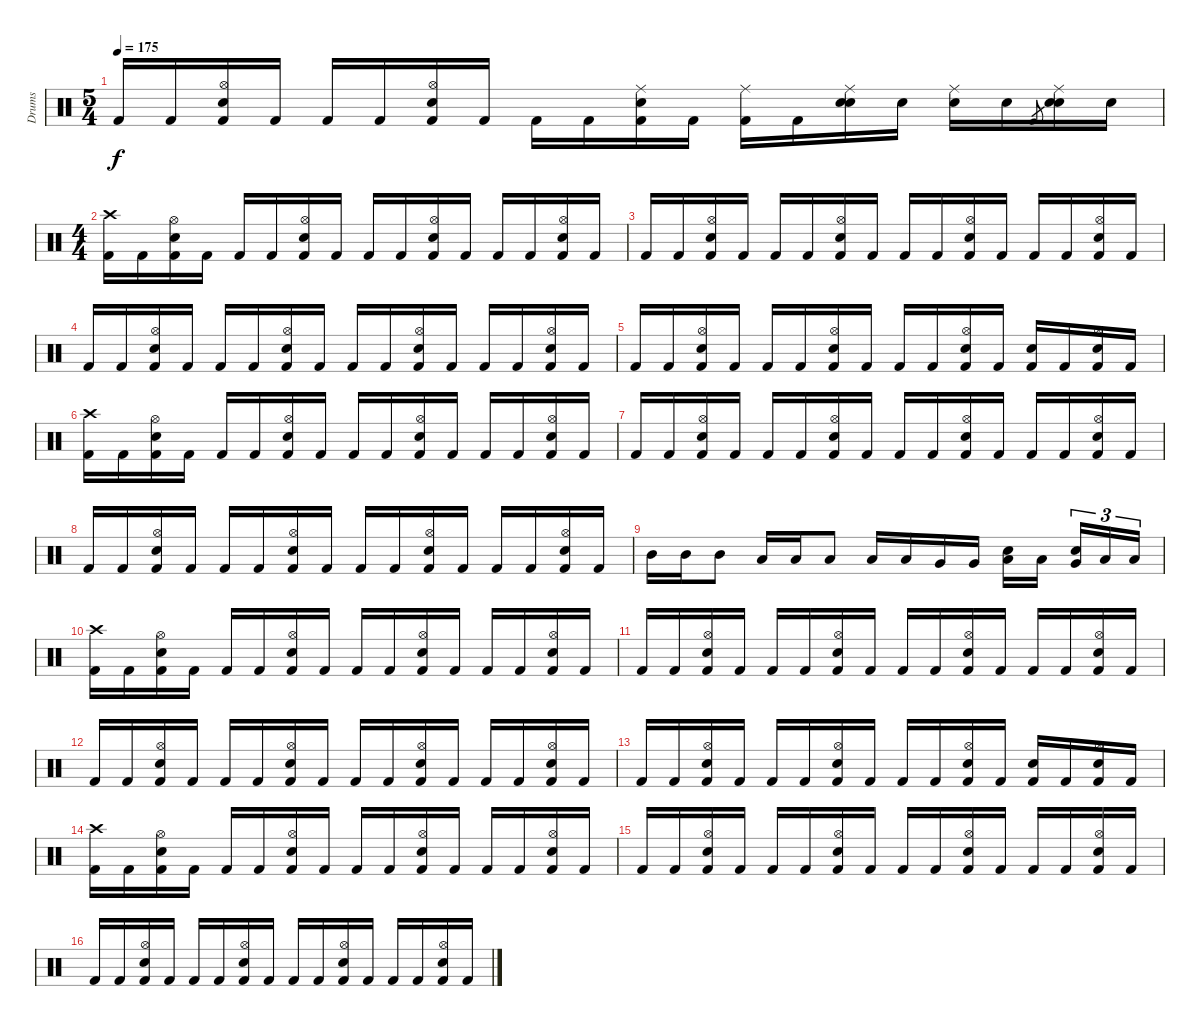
\track ("Drums" "Drums") {instrument percussion}
\staff {score}
\articulation defaults
\ts (5 4)
\tempo 175
\clef neutral
\ks c "Kick (hit) 2".16{dy f} "Kick (hit) 2".16
("Hi-Hat (open)" "Electric Snare (hit)" "Kick (hit) 2").16 "Kick (hit) 2".16 "Kick (hit) 2".16 "Kick (hit) 2".16 ("Hi-Hat (open)" "Electric Snare (hit)" "Kick (hit) 2").16 "Kick (hit) 2".16 "Kick (hit) 2".16 "Kick (hit) 2".16 ("Ride (middle)" "Electric Snare (hit)" "Kick (hit) 2").16 "Kick (hit) 2".16 ("Ride (middle)" "Kick (hit) 2").16 "Kick (hit) 2".16 ("Ride (middle)" "Electric Snare (hit)" "Snare (hit) 2").16 "Snare (hit) 2".16 ("Ride (middle)" "Snare (hit) 2").16 "Snare (hit) 2".16 "Kick (hit) 2".8{gr} ("Ride (middle)" "Electric Snare (hit)" "Snare (hit) 2").16 "Snare (hit) 2".16 |
\ts (4 4)
("Crash high (hit)" "Kick (hit) 2").16 "Kick (hit) 2".16 ("Hi-Hat (open)" "Electric Snare (hit)" "Kick (hit) 2").16 "Kick (hit) 2".16 "Kick (hit) 2".16 "Kick (hit) 2".16 ("Hi-Hat (open)" "Electric Snare (hit)" "Kick (hit) 2").16 "Kick (hit) 2".16 "Kick (hit) 2".16 "Kick (hit) 2".16 ("Hi-Hat (open)" "Electric Snare (hit)" "Kick (hit) 2").16 "Kick (hit) 2".16 "Kick (hit) 2".16 "Kick (hit) 2".16 ("Hi-Hat (open)" "Electric Snare (hit)" "Kick (hit) 2").16 "Kick (hit) 2".16 |
"Kick (hit) 2".16 "Kick (hit) 2".16 ("Hi-Hat (open)" "Electric Snare (hit)" "Kick (hit) 2").16 "Kick (hit) 2".16 "Kick (hit) 2".16 "Kick (hit) 2".16 ("Hi-Hat (open)" "Electric Snare (hit)" "Kick (hit) 2").16 "Kick (hit) 2".16 "Kick (hit) 2".16 "Kick (hit) 2".16 ("Hi-Hat (open)" "Electric Snare (hit)" "Kick (hit) 2").16 "Kick (hit) 2".16 "Kick (hit) 2".16 "Kick (hit) 2".16 ("Hi-Hat (open)" "Electric Snare (hit)" "Kick (hit) 2").16 "Kick (hit) 2".16 |
"Kick (hit) 2".16 "Kick (hit) 2".16 ("Hi-Hat (open)" "Electric Snare (hit)" "Kick (hit) 2").16 "Kick (hit) 2".16 "Kick (hit) 2".16 "Kick (hit) 2".16 ("Hi-Hat (open)" "Electric Snare (hit)" "Kick (hit) 2").16 "Kick (hit) 2".16 "Kick (hit) 2".16 "Kick (hit) 2".16 ("Hi-Hat (open)" "Electric Snare (hit)" "Kick (hit) 2").16 "Kick (hit) 2".16 "Kick (hit) 2".16 "Kick (hit) 2".16 ("Hi-Hat (open)" "Electric Snare (hit)" "Kick (hit) 2").16 "Kick (hit) 2".16 |
"Kick (hit) 2".16 "Kick (hit) 2".16 ("Hi-Hat (open)" "Electric Snare (hit)" "Kick (hit) 2").16 "Kick (hit) 2".16 "Kick (hit) 2".16 "Kick (hit) 2".16 ("Hi-Hat (open)" "Electric Snare (hit)" "Kick (hit) 2").16 "Kick (hit) 2".16 "Kick (hit) 2".16 "Kick (hit) 2".16 ("Hi-Hat (open)" "Electric Snare (hit)" "Kick (hit) 2").16 "Kick (hit) 2".16 ("Electric Snare (hit)" "Kick (hit) 2").16 "Kick (hit) 2".16 ("Hi-Hat (open)" "Electric Snare (hit)" "Kick (hit) 2").16 "Kick (hit) 2".16 |
("Crash high (hit)" "Kick (hit) 2").16 "Kick (hit) 2".16 ("Hi-Hat (open)" "Electric Snare (hit)" "Kick (hit) 2").16 "Kick (hit) 2".16 "Kick (hit) 2".16 "Kick (hit) 2".16 ("Hi-Hat (open)" "Electric Snare (hit)" "Kick (hit) 2").16 "Kick (hit) 2".16 "Kick (hit) 2".16 "Kick (hit) 2".16 ("Hi-Hat (open)" "Electric Snare (hit)" "Kick (hit) 2").16 "Kick (hit) 2".16 "Kick (hit) 2".16 "Kick (hit) 2".16 ("Hi-Hat (open)" "Electric Snare (hit)" "Kick (hit) 2").16 "Kick (hit) 2".16 |
"Kick (hit) 2".16 "Kick (hit) 2".16 ("Hi-Hat (open)" "Electric Snare (hit)" "Kick (hit) 2").16 "Kick (hit) 2".16 "Kick (hit) 2".16 "Kick (hit) 2".16 ("Hi-Hat (open)" "Electric Snare (hit)" "Kick (hit) 2").16 "Kick (hit) 2".16 "Kick (hit) 2".16 "Kick (hit) 2".16 ("Hi-Hat (open)" "Electric Snare (hit)" "Kick (hit) 2").16 "Kick (hit) 2".16 "Kick (hit) 2".16 "Kick (hit) 2".16 ("Hi-Hat (open)" "Electric Snare (hit)" "Kick (hit) 2").16 "Kick (hit) 2".16 |
"Kick (hit) 2".16 "Kick (hit) 2".16 ("Hi-Hat (open)" "Electric Snare (hit)" "Kick (hit) 2").16 "Kick (hit) 2".16 "Kick (hit) 2".16 "Kick (hit) 2".16 ("Hi-Hat (open)" "Electric Snare (hit)" "Kick (hit) 2").16 "Kick (hit) 2".16 "Kick (hit) 2".16 "Kick (hit) 2".16 ("Hi-Hat (open)" "Electric Snare (hit)" "Kick (hit) 2").16 "Kick (hit) 2".16 "Kick (hit) 2".16 "Kick (hit) 2".16 ("Hi-Hat (open)" "Electric Snare (hit)" "Kick (hit) 2").16 "Kick (hit) 2".16 |
"Mid Tom (hit)".16 "Mid Tom (hit)".16 "Mid Tom (hit)".8 "Low Tom (hit)".16 "Low Tom (hit)".16 "Low Tom (hit)".8 "Low Tom (hit)".16 "Low Tom (hit)".16 "Very Low Tom (hit)".16 "Very Low Tom (hit)".16 ("Low Tom (hit)" "Snare (hit) 2").16 "Low Tom (hit)".16 ("Very Low Tom (hit)" "Snare (hit) 2").16{tu (3 2)} "Low Floor Tom (hit)".16{tu (3 2)} "Low Floor Tom (hit)".16{tu (3 2)} |
("Crash high (hit)" "Kick (hit) 2").16 "Kick (hit) 2".16 ("Hi-Hat (open)" "Electric Snare (hit)" "Kick (hit) 2").16 "Kick (hit) 2".16 "Kick (hit) 2".16 "Kick (hit) 2".16 ("Hi-Hat (open)" "Electric Snare (hit)" "Kick (hit) 2").16 "Kick (hit) 2".16 "Kick (hit) 2".16 "Kick (hit) 2".16 ("Hi-Hat (open)" "Electric Snare (hit)" "Kick (hit) 2").16 "Kick (hit) 2".16 "Kick (hit) 2".16 "Kick (hit) 2".16 ("Hi-Hat (open)" "Electric Snare (hit)" "Kick (hit) 2").16 "Kick (hit) 2".16 |
"Kick (hit) 2".16 "Kick (hit) 2".16 ("Hi-Hat (open)" "Electric Snare (hit)" "Kick (hit) 2").16 "Kick (hit) 2".16 "Kick (hit) 2".16 "Kick (hit) 2".16 ("Hi-Hat (open)" "Electric Snare (hit)" "Kick (hit) 2").16 "Kick (hit) 2".16 "Kick (hit) 2".16 "Kick (hit) 2".16 ("Hi-Hat (open)" "Electric Snare (hit)" "Kick (hit) 2").16 "Kick (hit) 2".16 "Kick (hit) 2".16 "Kick (hit) 2".16 ("Hi-Hat (open)" "Electric Snare (hit)" "Kick (hit) 2").16 "Kick (hit) 2".16 |
"Kick (hit) 2".16 "Kick (hit) 2".16 ("Hi-Hat (open)" "Electric Snare (hit)" "Kick (hit) 2").16 "Kick (hit) 2".16 "Kick (hit) 2".16 "Kick (hit) 2".16 ("Hi-Hat (open)" "Electric Snare (hit)" "Kick (hit) 2").16 "Kick (hit) 2".16 "Kick (hit) 2".16 "Kick (hit) 2".16 ("Hi-Hat (open)" "Electric Snare (hit)" "Kick (hit) 2").16 "Kick (hit) 2".16 "Kick (hit) 2".16 "Kick (hit) 2".16 ("Hi-Hat (open)" "Electric Snare (hit)" "Kick (hit) 2").16 "Kick (hit) 2".16 |
"Kick (hit) 2".16 "Kick (hit) 2".16 ("Hi-Hat (open)" "Electric Snare (hit)" "Kick (hit) 2").16 "Kick (hit) 2".16 "Kick (hit) 2".16 "Kick (hit) 2".16 ("Hi-Hat (open)" "Electric Snare (hit)" "Kick (hit) 2").16 "Kick (hit) 2".16 "Kick (hit) 2".16 "Kick (hit) 2".16 ("Hi-Hat (open)" "Electric Snare (hit)" "Kick (hit) 2").16 "Kick (hit) 2".16 ("Electric Snare (hit)" "Kick (hit) 2").16 "Kick (hit) 2".16 ("Hi-Hat (open)" "Electric Snare (hit)" "Kick (hit) 2").16 "Kick (hit) 2".16 |
("Crash high (hit)" "Kick (hit) 2").16 "Kick (hit) 2".16 ("Hi-Hat (open)" "Electric Snare (hit)" "Kick (hit) 2").16 "Kick (hit) 2".16 "Kick (hit) 2".16 "Kick (hit) 2".16 ("Hi-Hat (open)" "Electric Snare (hit)" "Kick (hit) 2").16 "Kick (hit) 2".16 "Kick (hit) 2".16 "Kick (hit) 2".16 ("Hi-Hat (open)" "Electric Snare (hit)" "Kick (hit) 2").16 "Kick (hit) 2".16 "Kick (hit) 2".16 "Kick (hit) 2".16 ("Hi-Hat (open)" "Electric Snare (hit)" "Kick (hit) 2").16 "Kick (hit) 2".16 |
"Kick (hit) 2".16 "Kick (hit) 2".16 ("Hi-Hat (open)" "Electric Snare (hit)" "Kick (hit) 2").16 "Kick (hit) 2".16 "Kick (hit) 2".16 "Kick (hit) 2".16 ("Hi-Hat (open)" "Electric Snare (hit)" "Kick (hit) 2").16 "Kick (hit) 2".16 "Kick (hit) 2".16 "Kick (hit) 2".16 ("Hi-Hat (open)" "Electric Snare (hit)" "Kick (hit) 2").16 "Kick (hit) 2".16 "Kick (hit) 2".16 "Kick (hit) 2".16 ("Hi-Hat (open)" "Electric Snare (hit)" "Kick (hit) 2").16 "Kick (hit) 2".16 |
"Kick (hit) 2".16 "Kick (hit) 2".16 ("Hi-Hat (open)" "Electric Snare (hit)" "Kick (hit) 2").16 "Kick (hit) 2".16 "Kick (hit) 2".16 "Kick (hit) 2".16 ("Hi-Hat (open)" "Electric Snare (hit)" "Kick (hit) 2").16 "Kick (hit) 2".16 "Kick (hit) 2".16 "Kick (hit) 2".16 ("Hi-Hat (open)" "Electric Snare (hit)" "Kick (hit) 2").16 "Kick (hit) 2".16 "Kick (hit) 2".16 "Kick (hit) 2".16 ("Hi-Hat (open)" "Electric Snare (hit)" "Kick (hit) 2").16 "Kick (hit) 2".16
